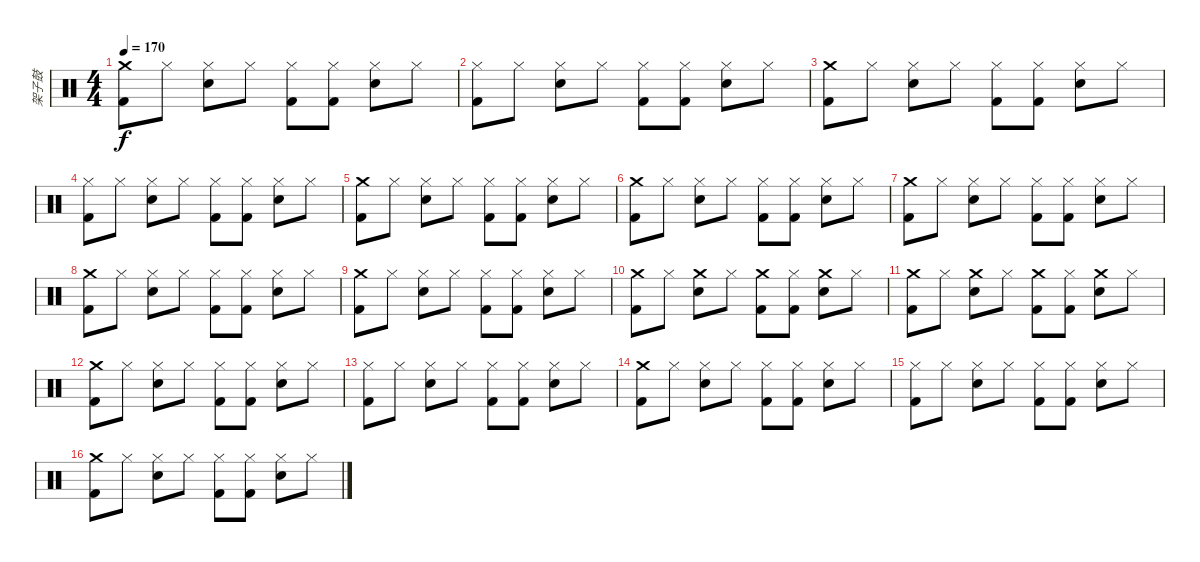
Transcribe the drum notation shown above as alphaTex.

\track ("架子鼓" "架子鼓") {instrument percussion}
\staff {score}
\articulation defaults
\ts (4 4)
\tempo 170
\clef neutral
\ks c
("Crash medium (hit)" "Kick (hit) 2").8{dy f} "Hi-Hat (closed)".8 ("Hi-Hat (closed)" "Snare (hit) 2").8 "Hi-Hat (closed)".8 ("Hi-Hat (closed)" "Kick (hit) 2").8 ("Hi-Hat (closed)" "Kick (hit) 2").8 ("Hi-Hat (closed)" "Snare (hit) 2").8 "Hi-Hat (closed)".8 |
("Hi-Hat (closed)" "Kick (hit) 2").8 "Hi-Hat (closed)".8 ("Hi-Hat (closed)" "Snare (hit) 2").8 "Hi-Hat (closed)".8 ("Hi-Hat (closed)" "Kick (hit) 2").8 ("Hi-Hat (closed)" "Kick (hit) 2").8 ("Hi-Hat (closed)" "Snare (hit) 2").8 "Hi-Hat (closed)".8 |
("Crash medium (hit)" "Kick (hit) 2").8 "Hi-Hat (closed)".8 ("Hi-Hat (closed)" "Snare (hit) 2").8 "Hi-Hat (closed)".8 ("Hi-Hat (closed)" "Kick (hit) 2").8 ("Hi-Hat (closed)" "Kick (hit) 2").8 ("Hi-Hat (closed)" "Snare (hit) 2").8 "Hi-Hat (closed)".8 |
("Hi-Hat (closed)" "Kick (hit) 2").8 "Hi-Hat (closed)".8 ("Hi-Hat (closed)" "Snare (hit) 2").8 "Hi-Hat (closed)".8 ("Hi-Hat (closed)" "Kick (hit) 2").8 ("Hi-Hat (closed)" "Kick (hit) 2").8 ("Hi-Hat (closed)" "Snare (hit) 2").8 "Hi-Hat (closed)".8 |
("Crash medium (hit)" "Kick (hit) 2").8 "Hi-Hat (closed)".8 ("Hi-Hat (closed)" "Snare (hit) 2").8 "Hi-Hat (closed)".8 ("Hi-Hat (closed)" "Kick (hit) 2").8 ("Hi-Hat (closed)" "Kick (hit) 2").8 ("Hi-Hat (closed)" "Snare (hit) 2").8 "Hi-Hat (closed)".8 |
("Crash medium (hit)" "Kick (hit) 2").8 "Hi-Hat (closed)".8 ("Hi-Hat (closed)" "Snare (hit) 2").8 "Hi-Hat (closed)".8 ("Hi-Hat (closed)" "Kick (hit) 2").8 ("Hi-Hat (closed)" "Kick (hit) 2").8 ("Hi-Hat (closed)" "Snare (hit) 2").8 "Hi-Hat (closed)".8 |
("Crash medium (hit)" "Kick (hit) 2").8 "Hi-Hat (closed)".8 ("Hi-Hat (closed)" "Snare (hit) 2").8 "Hi-Hat (closed)".8 ("Hi-Hat (closed)" "Kick (hit) 2").8 ("Hi-Hat (closed)" "Kick (hit) 2").8 ("Hi-Hat (closed)" "Snare (hit) 2").8 "Hi-Hat (closed)".8 |
("Crash medium (hit)" "Kick (hit) 2").8 "Hi-Hat (closed)".8 ("Hi-Hat (closed)" "Snare (hit) 2").8 "Hi-Hat (closed)".8 ("Hi-Hat (closed)" "Kick (hit) 2").8 ("Hi-Hat (closed)" "Kick (hit) 2").8 ("Hi-Hat (closed)" "Snare (hit) 2").8 "Hi-Hat (closed)".8 |
("Crash medium (hit)" "Kick (hit) 2").8 "Hi-Hat (closed)".8 ("Hi-Hat (closed)" "Snare (hit) 2").8 "Hi-Hat (closed)".8 ("Hi-Hat (closed)" "Kick (hit) 2").8 ("Hi-Hat (closed)" "Kick (hit) 2").8 ("Hi-Hat (closed)" "Snare (hit) 2").8 "Hi-Hat (closed)".8 |
("Crash medium (hit)" "Kick (hit) 2").8 "Hi-Hat (closed)".8 ("Crash medium (hit)" "Snare (hit) 2").8 "Hi-Hat (closed)".8 ("Crash medium (hit)" "Kick (hit) 2").8 ("Hi-Hat (closed)" "Kick (hit) 2").8 ("Crash medium (hit)" "Snare (hit) 2").8 "Hi-Hat (closed)".8 |
("Crash medium (hit)" "Kick (hit) 2").8 "Hi-Hat (closed)".8 ("Crash medium (hit)" "Snare (hit) 2").8 "Hi-Hat (closed)".8 ("Crash medium (hit)" "Kick (hit) 2").8 ("Hi-Hat (closed)" "Kick (hit) 2").8 ("Crash medium (hit)" "Snare (hit) 2").8 "Hi-Hat (closed)".8 |
("Crash medium (hit)" "Kick (hit) 2").8 "Hi-Hat (closed)".8 ("Hi-Hat (closed)" "Snare (hit) 2").8 "Hi-Hat (closed)".8 ("Hi-Hat (closed)" "Kick (hit) 2").8 ("Hi-Hat (closed)" "Kick (hit) 2").8 ("Hi-Hat (closed)" "Snare (hit) 2").8 "Hi-Hat (closed)".8 |
("Hi-Hat (closed)" "Kick (hit) 2").8 "Hi-Hat (closed)".8 ("Hi-Hat (closed)" "Snare (hit) 2").8 "Hi-Hat (closed)".8 ("Hi-Hat (closed)" "Kick (hit) 2").8 ("Hi-Hat (closed)" "Kick (hit) 2").8 ("Hi-Hat (closed)" "Snare (hit) 2").8 "Hi-Hat (closed)".8 |
("Crash medium (hit)" "Kick (hit) 2").8 "Hi-Hat (closed)".8 ("Hi-Hat (closed)" "Snare (hit) 2").8 "Hi-Hat (closed)".8 ("Hi-Hat (closed)" "Kick (hit) 2").8 ("Hi-Hat (closed)" "Kick (hit) 2").8 ("Hi-Hat (closed)" "Snare (hit) 2").8 "Hi-Hat (closed)".8 |
("Hi-Hat (closed)" "Kick (hit) 2").8 "Hi-Hat (closed)".8 ("Hi-Hat (closed)" "Snare (hit) 2").8 "Hi-Hat (closed)".8 ("Hi-Hat (closed)" "Kick (hit) 2").8 ("Hi-Hat (closed)" "Kick (hit) 2").8 ("Hi-Hat (closed)" "Snare (hit) 2").8 "Hi-Hat (closed)".8 |
("Crash medium (hit)" "Kick (hit) 2").8 "Hi-Hat (closed)".8 ("Hi-Hat (closed)" "Snare (hit) 2").8 "Hi-Hat (closed)".8 ("Hi-Hat (closed)" "Kick (hit) 2").8 ("Hi-Hat (closed)" "Kick (hit) 2").8 ("Hi-Hat (closed)" "Snare (hit) 2").8 "Hi-Hat (closed)".8
